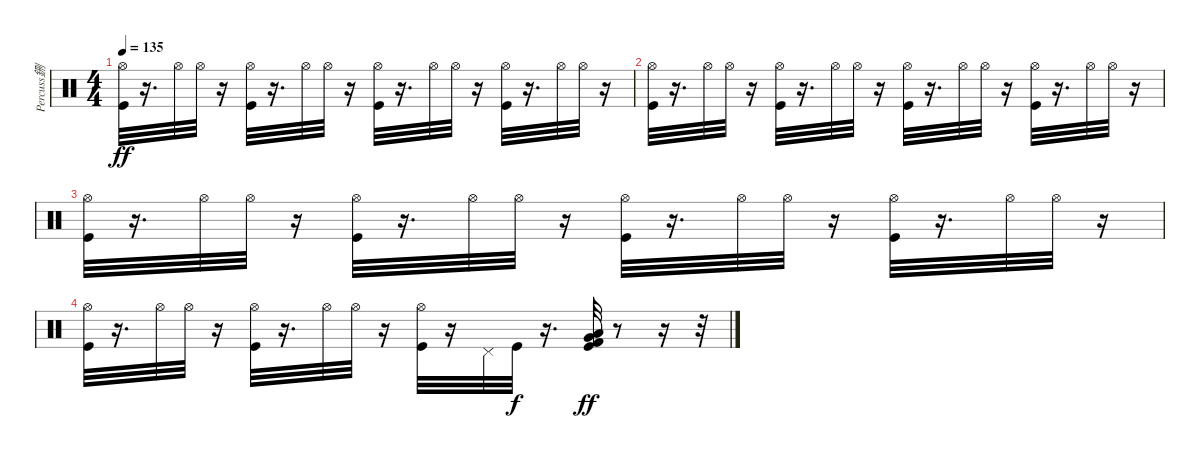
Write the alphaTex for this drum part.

\track ("Percuss鉶" "Percuss鉶") {instrument percussion}
\staff {score}
\articulation defaults
\ts (4 4)
\tempo 135
\clef neutral
\ks c
("Kick (hit)" "Hi-Hat (open)").32{dy ff} r.16{d} "Hi-Hat (open)".32 "Hi-Hat (open)".32 r.16 ("Kick (hit)" "Hi-Hat (open)").32 r.16{d} "Hi-Hat (open)".32 "Hi-Hat (open)".32 r.16 ("Kick (hit)" "Hi-Hat (open)").32 r.16{d} "Hi-Hat (open)".32 "Hi-Hat (open)".32 r.16 ("Kick (hit)" "Hi-Hat (open)").32 r.16{d} "Hi-Hat (open)".32 "Hi-Hat (open)".32 r.16 |
("Hi-Hat (open)" "Kick (hit)").32 r.16{d} "Hi-Hat (open)".32 "Hi-Hat (open)".32 r.16 ("Hi-Hat (open)" "Kick (hit)").32 r.16{d} "Hi-Hat (open)".32 "Hi-Hat (open)".32 r.16 ("Hi-Hat (open)" "Kick (hit)").32 r.16{d} "Hi-Hat (open)".32 "Hi-Hat (open)".32 r.16 ("Kick (hit)" "Hi-Hat (open)").32 r.16{d} "Hi-Hat (open)".32 "Hi-Hat (open)".32 r.16 |
("Kick (hit)" "Hi-Hat (open)").32 r.16{d} "Hi-Hat (open)".32 "Hi-Hat (open)".32 r.16 ("Kick (hit)" "Hi-Hat (open)").32 r.16{d} "Hi-Hat (open)".32 "Hi-Hat (open)".32 r.16 ("Kick (hit)" "Hi-Hat (open)").32 r.16{d} "Hi-Hat (open)".32 "Hi-Hat (open)".32 r.16 ("Kick (hit)" "Hi-Hat (open)").32 r.16{d} "Hi-Hat (open)".32 "Hi-Hat (open)".32 r.16 |
("Kick (hit)" "Hi-Hat (open)").32 r.16{d} "Hi-Hat (open)".32 "Hi-Hat (open)".32 r.16 ("Kick (hit)" "Hi-Hat (open)").32 r.16{d} "Hi-Hat (open)".32 "Hi-Hat (open)".32 r.16 ("Kick (hit)" "Hi-Hat (open)").32 r.16 "Pedal Hi-Hat (hit)".32 "Kick (hit)".32{dy f} r.16{d} ("Low Floor Tom (hit)" "Kick (hit) 2" "Kick (hit)" "Very Low Tom (hit)").32{dy ff} r.8 r.16 r.32
